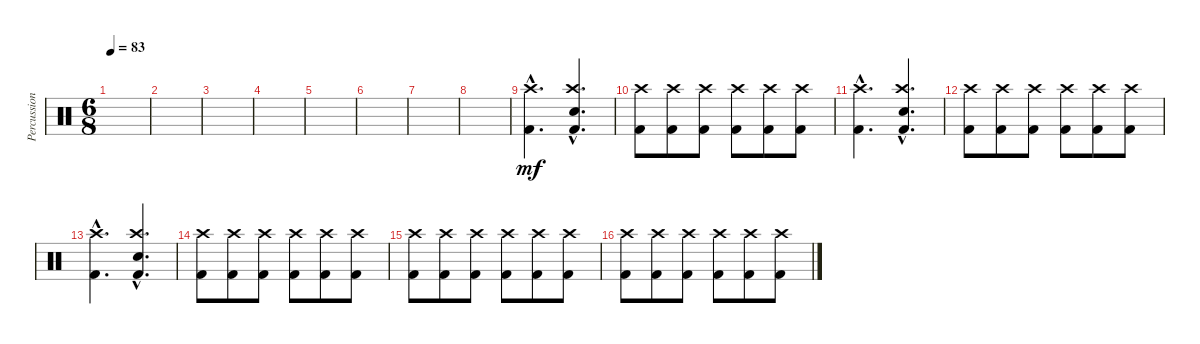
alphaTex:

\track ("Percussion" "Percussion") {instrument percussion}
\staff {score}
\articulation defaults
\ts (6 8)
\tempo 83
\clef neutral
\ks c
|
|
|
|
|
|
|
|
("Kick (hit) 2"{hac} "Crash high (hit)"{hac}).4{d dy mf} ("Kick (hit) 2"{hac} "Snare (hit) 2"{hac} "Crash high (hit)"{hac}).4{d} |
("Kick (hit) 2" "Crash high (hit)").8 ("Kick (hit) 2" "Crash high (hit)").8 ("Kick (hit) 2" "Crash high (hit)").8 ("Kick (hit) 2" "Crash high (hit)").8 ("Kick (hit) 2" "Crash high (hit)").8 ("Kick (hit) 2" "Crash high (hit)").8 |
("Kick (hit) 2"{hac} "Crash high (hit)"{hac}).4{d} ("Kick (hit) 2"{hac} "Snare (hit) 2"{hac} "Crash high (hit)"{hac}).4{d} |
("Kick (hit) 2" "Crash high (hit)").8 ("Kick (hit) 2" "Crash high (hit)").8 ("Kick (hit) 2" "Crash high (hit)").8 ("Kick (hit) 2" "Crash high (hit)").8 ("Kick (hit) 2" "Crash high (hit)").8 ("Kick (hit) 2" "Crash high (hit)").8 |
("Kick (hit) 2"{hac} "Crash high (hit)"{hac}).4{d} ("Kick (hit) 2"{hac} "Snare (hit) 2"{hac} "Crash high (hit)"{hac}).4{d} |
("Kick (hit) 2" "Crash high (hit)").8 ("Kick (hit) 2" "Crash high (hit)").8 ("Kick (hit) 2" "Crash high (hit)").8 ("Kick (hit) 2" "Crash high (hit)").8 ("Kick (hit) 2" "Crash high (hit)").8 ("Kick (hit) 2" "Crash high (hit)").8 |
("Kick (hit) 2" "Crash high (hit)").8 ("Kick (hit) 2" "Crash high (hit)").8 ("Kick (hit) 2" "Crash high (hit)").8 ("Kick (hit) 2" "Crash high (hit)").8 ("Kick (hit) 2" "Crash high (hit)").8 ("Kick (hit) 2" "Crash high (hit)").8 |
("Kick (hit) 2" "Crash high (hit)").8 ("Kick (hit) 2" "Crash high (hit)").8 ("Kick (hit) 2" "Crash high (hit)").8 ("Kick (hit) 2" "Crash high (hit)").8 ("Kick (hit) 2" "Crash high (hit)").8 ("Kick (hit) 2" "Crash high (hit)").8
